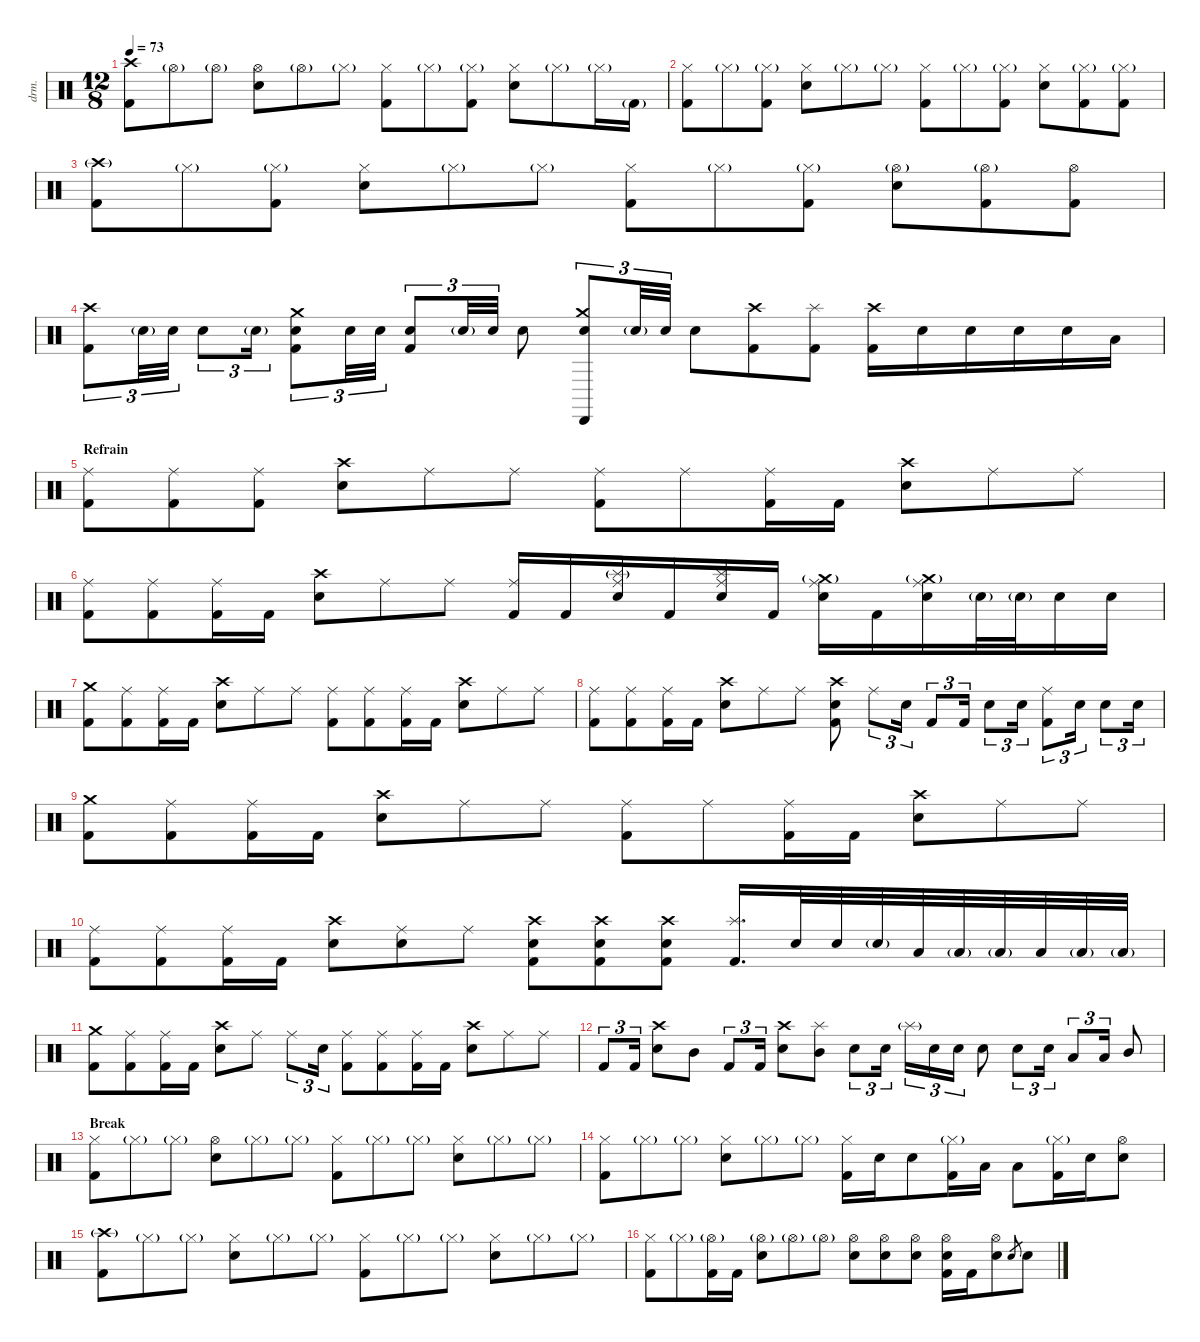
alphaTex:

\defaultSystemsLayout 4
\hideDynamics
\bracketExtendMode nobrackets
\otherSystemsTrackNameOrientation horizontal
\track ("Drums" "drm.") {instrument percussion}
\staff {score}
\articulation defaults
\ts (12 8)
\tempo 73
\clef neutral
\ks c
("Crash high (hit)" "Kick (hit) 2").8{dy f beam Down} "Hi-Hat (open)"{g}.8{dy mf beam Down} "Hi-Hat (open)"{g}.8{beam Down} ("Hi-Hat (open)" "Snare (hit) 2").8{dy f beam Down} "Hi-Hat (open)"{g}.8{beam Down} "Hi-Hat (closed)"{g}.8{beam Down} ("Hi-Hat (closed)" "Kick (hit) 2").8{beam Down} "Hi-Hat (closed)"{g}.8{beam Down} ("Hi-Hat (closed)"{g} "Kick (hit) 2").8{beam Down} ("Hi-Hat (closed)" "Snare (hit) 2").8{beam Down} "Hi-Hat (closed)"{g}.8{beam Down} "Hi-Hat (closed)"{g}.16{beam Down} "Kick (hit) 2"{g}.16{beam Down} |
("Hi-Hat (closed)" "Kick (hit) 2").8{beam Down} "Hi-Hat (closed)"{g}.8{beam Down} ("Hi-Hat (closed)"{g} "Kick (hit) 2").8{beam Down} ("Hi-Hat (closed)" "Snare (hit) 2").8{beam Down} "Hi-Hat (closed)"{g}.8{beam Down} "Hi-Hat (closed)"{g}.8{beam Down} ("Hi-Hat (closed)" "Kick (hit) 2").8{beam Down} "Hi-Hat (closed)"{g}.8{beam Down} ("Hi-Hat (closed)"{g} "Kick (hit) 2").8{beam Down} ("Hi-Hat (closed)" "Snare (hit) 2").8{beam Down} ("Hi-Hat (closed)"{g} "Kick (hit) 2").8{beam Down} ("Hi-Hat (closed)"{g} "Kick (hit) 2").8{beam Down} |
("Crash high (hit)"{g} "Kick (hit) 2").8{beam Down} "Hi-Hat (closed)"{g}.8{beam Down} ("Hi-Hat (closed)"{g} "Kick (hit) 2").8{beam Down} ("Hi-Hat (closed)" "Snare (hit) 2").8{beam Down} "Hi-Hat (closed)"{g}.8{beam Down} "Hi-Hat (closed)"{g}.8{beam Down} ("Hi-Hat (closed)" "Kick (hit) 2").8{beam Down} "Hi-Hat (closed)"{g}.8{beam Down} ("Hi-Hat (closed)"{g} "Kick (hit) 2").8{beam Down} ("Hi-Hat (open)"{g} "Snare (hit) 2").8{beam Down} ("Hi-Hat (open)"{g} "Kick (hit) 2").8{beam Down} ("Hi-Hat (open)" "Kick (hit) 2").8{beam Down} |
("Crash high (hit)" "Kick (hit) 2").8{tu (3 2) beam Down} "Snare (hit) 2"{g}.32{tu (3 2) beam Down} "Snare (hit) 2".32{tu (3 2) beam Down} "Snare (hit) 2".8{tu (3 2) beam Down} "Snare (hit) 2"{g}.16{tu (3 2) beam Down} ("Snare (hit) 2" "Crash medium (hit)" "Kick (hit) 2").8{tu (3 2) beam Down} "Snare (hit) 2".32{tu (3 2) beam Down} "Snare (hit) 2".32{tu (3 2) beam Down} ("Snare (hit) 2" "Kick (hit) 2").8{tu (3 2) beam Up} "Snare (hit) 2"{g}.32{tu (3 2) beam Up} "Snare (hit) 2".32{tu (3 2) beam Up} "Snare (hit) 2".8{beam Down} ("Snare (hit) 2" "Crash medium (hit)" "Cabasa (hit)").8{tu (3 2) beam Up} "Snare (hit) 2"{g}.32{tu (3 2) beam Up} "Snare (hit) 2".32{tu (3 2) beam Up} "Snare (hit) 2".8{beam Down} ("Crash high (hit)" "Kick (hit) 2").8{beam Down} ("Splash (hit)" "Kick (hit) 2").8{beam Down} ("Crash high (hit)" "Kick (hit) 2").16{beam Down} "Snare (hit) 2".16{beam Down} "Snare (hit) 2".16{beam Down} "Snare (hit) 2".16{beam Down} "Snare (hit) 2".16{beam Down} "Low Tom (hit)".16{beam Down} |
\section ("" "Refrain")
("Ride (middle)" "Kick (hit) 2").8{beam Down} ("Ride (middle)" "Kick (hit) 2").8{beam Down} ("Ride (middle)" "Kick (hit) 2").8{beam Down} ("Snare (hit) 2" "Crash high (hit)").8{beam Down} "Ride (middle)".8{beam Down} "Ride (middle)".8{beam Down} ("Ride (middle)" "Kick (hit) 2").8{beam Down} "Ride (middle)".8{beam Down} ("Ride (middle)" "Kick (hit) 2").16{beam Down} "Kick (hit) 2".16{beam Down} ("Snare (hit) 2" "Crash high (hit)").8{beam Down} "Ride (middle)".8{beam Down} "Ride (middle)".8{beam Down} |
("Ride (middle)" "Kick (hit) 2").8{beam Down} ("Ride (middle)" "Kick (hit) 2").8{beam Down} ("Ride (middle)" "Kick (hit) 2").16{beam Down} "Kick (hit) 2".16{beam Down} ("Snare (hit) 2" "Crash high (hit)").8{beam Down} "Ride (middle)".8{beam Down} "Ride (middle)".8{beam Down} ("Ride (middle)" "Kick (hit) 2").16{beam Up} "Kick (hit) 2".16{beam Up} ("Splash (hit)"{g} "Snare (hit) 2" "Ride (middle)").16{beam Up} "Kick (hit) 2".16{beam Up} ("Splash (hit)" "Snare (hit) 2" "Ride (middle)").16{beam Up} "Kick (hit) 2".16{beam Up} ("Crash medium (hit)"{g} "Snare (hit) 2" "Ride (middle)").16{beam Down} "Kick (hit) 2".16{beam Down} ("Crash medium (hit)"{g} "Snare (hit) 2" "Ride (middle)").16{beam Down} "Snare (hit) 2"{g}.32{beam Down} "Snare (hit) 2"{g}.32{beam Down} "Snare (hit) 2".16{beam Down} "Snare (hit) 2".16{beam Down} |
("Crash medium (hit)" "Kick (hit) 2").8{beam Down} ("Ride (middle)" "Kick (hit) 2").8{beam Down} ("Ride (middle)" "Kick (hit) 2").16{beam Down} "Kick (hit) 2".16{beam Down} ("Snare (hit) 2" "Crash high (hit)").8{beam Down} "Ride (middle)".8{beam Down} "Ride (middle)".8{beam Down} ("Ride (middle)" "Kick (hit) 2").8{beam Down} ("Ride (middle)" "Kick (hit) 2").8{beam Down} ("Ride (middle)" "Kick (hit) 2").16{beam Down} "Kick (hit) 2".16{beam Down} ("Snare (hit) 2" "Crash high (hit)").8{beam Down} "Ride (middle)".8{beam Down} "Ride (middle)".8{beam Down} |
("Ride (middle)" "Kick (hit) 2").8{beam Down} ("Ride (middle)" "Kick (hit) 2").8{beam Down} ("Ride (middle)" "Kick (hit) 2").16{beam Down} "Kick (hit) 2".16{beam Down} ("Snare (hit) 2" "Crash high (hit)").8{beam Down} "Ride (middle)".8{beam Down} "Ride (middle)".8{beam Down} ("Snare (hit) 2" "Crash high (hit)" "Kick (hit) 2").8{beam Down} "Ride (middle)".8{tu (3 2) beam Down} "Snare (hit) 2".16{tu (3 2) beam Down} "Kick (hit) 2".8{tu (3 2) beam Up} "Kick (hit) 2".16{tu (3 2) beam Up} "Snare (hit) 2".8{tu (3 2) beam Down} "Snare (hit) 2".16{tu (3 2) beam Down} ("Ride (middle)" "Kick (hit) 2").8{tu (3 2) beam Down} "Snare (hit) 2".16{tu (3 2) beam Down} "Snare (hit) 2".8{tu (3 2) beam Down} "Snare (hit) 2".16{tu (3 2) beam Down} |
("Crash medium (hit)" "Kick (hit) 2").8{beam Down} ("Ride (middle)" "Kick (hit) 2").8{beam Down} ("Ride (middle)" "Kick (hit) 2").16{beam Down} "Kick (hit) 2".16{beam Down} ("Snare (hit) 2" "Crash high (hit)").8{beam Down} "Ride (middle)".8{beam Down} "Ride (middle)".8{beam Down} ("Ride (middle)" "Kick (hit) 2").8{beam Down} "Ride (middle)".8{beam Down} ("Ride (middle)" "Kick (hit) 2").16{beam Down} "Kick (hit) 2".16{beam Down} ("Snare (hit) 2" "Crash high (hit)").8{beam Down} "Ride (middle)".8{beam Down} "Ride (middle)".8{beam Down} |
("Ride (middle)" "Kick (hit) 2").8{beam Down} ("Ride (middle)" "Kick (hit) 2").8{beam Down} ("Ride (middle)" "Kick (hit) 2").16{beam Down} "Kick (hit) 2".16{beam Down} ("Snare (hit) 2" "Crash high (hit)").8{beam Down} ("Snare (hit) 2" "Ride (middle)").8{beam Down} "Ride (middle)".8{beam Down} ("Snare (hit) 2" "Crash high (hit)" "Kick (hit) 2").8{beam Down} ("Snare (hit) 2" "Crash high (hit)" "Kick (hit) 2").8{beam Down} ("Snare (hit) 2" "Crash high (hit)" "Kick (hit) 2").8{beam Down} ("Splash (hit)" "Kick (hit) 2").16{d beam Up} "Snare (hit) 2".32{beam Up} "Snare (hit) 2".32{beam Up} "Snare (hit) 2"{g}.32{beam Up} "Low Tom (hit)".32{beam Up} "Low Tom (hit)"{g}.32{beam Up} "Low Tom (hit)"{g}.32{beam Up} "Low Tom (hit)".32{beam Up} "Low Tom (hit)"{g}.32{beam Up} "Low Tom (hit)"{g}.32{beam Up} |
("Crash medium (hit)" "Kick (hit) 2").8{beam Down} ("Ride (middle)" "Kick (hit) 2").8{beam Down} ("Ride (middle)" "Kick (hit) 2").16{beam Down} "Kick (hit) 2".16{beam Down} ("Snare (hit) 2" "Crash high (hit)").8{beam Down} "Ride (middle)".8{beam Down} "Ride (middle)".8{tu (3 2) beam Down} "Snare (hit) 2".16{tu (3 2) beam Down} ("Ride (middle)" "Kick (hit) 2").8{beam Down} ("Ride (middle)" "Kick (hit) 2").8{beam Down} ("Ride (middle)" "Kick (hit) 2").16{beam Down} "Kick (hit) 2".16{beam Down} ("Snare (hit) 2" "Crash high (hit)").8{beam Down} "Ride (middle)".8{beam Down} "Ride (middle)".8{beam Down} |
"Kick (hit) 2".8{tu (3 2) beam Up} "Kick (hit) 2".16{tu (3 2) beam Up} ("Snare (hit) 2" "Crash high (hit)").8{beam Down} "Mid Tom (hit)".8{beam Down} "Kick (hit) 2".8{tu (3 2) beam Up} "Kick (hit) 2".16{tu (3 2) beam Up} ("Snare (hit) 2" "Crash high (hit)").8{beam Down} ("Mid Tom (hit)" "Splash (hit)").8{beam Down} "Snare (hit) 2".8{tu (3 2) beam Down} "Snare (hit) 2".16{tu (3 2) beam Down} "Splash (hit)"{g}.16{tu (3 2) beam Down} "Snare (hit) 2".16{tu (3 2) beam Down} "Snare (hit) 2".16{tu (3 2) beam Down} "Snare (hit) 2".8{beam Down} "Snare (hit) 2".8{tu (3 2) beam Down} "Snare (hit) 2".16{tu (3 2) beam Down} "Low Tom (hit)".8{tu (3 2) beam Up} "Low Tom (hit)".16{tu (3 2) beam Up} "Mid Tom (hit)".8{beam Up} |
\section ("" "Break")
("Hi-Hat (closed)" "Kick (hit) 2").8{beam Down} "Hi-Hat (closed)"{g}.8{beam Down} "Hi-Hat (closed)"{g}.8{beam Down} ("Hi-Hat (open)" "Snare (hit) 2").8{beam Down} "Hi-Hat (closed)"{g}.8{beam Down} "Hi-Hat (closed)"{g}.8{beam Down} ("Hi-Hat (closed)" "Kick (hit) 2").8{beam Down} "Hi-Hat (closed)"{g}.8{beam Down} "Hi-Hat (closed)"{g}.8{beam Down} ("Hi-Hat (closed)" "Snare (hit) 2").8{beam Down} "Hi-Hat (closed)"{g}.8{beam Down} "Hi-Hat (closed)"{g}.8{beam Down} |
("Hi-Hat (closed)" "Kick (hit) 2").8{beam Down} "Hi-Hat (closed)"{g}.8{beam Down} "Hi-Hat (closed)"{g}.8{beam Down} ("Hi-Hat (closed)" "Snare (hit) 2").8{beam Down} "Hi-Hat (closed)"{g}.8{beam Down} "Hi-Hat (closed)"{g}.8{beam Down} ("Hi-Hat (closed)" "Kick (hit) 2").16{beam Down} "Snare (hit) 2".16{beam Down} "Snare (hit) 2".8{beam Down} ("Hi-Hat (closed)"{g} "Kick (hit) 2").16{beam Down} "Low Tom (hit)".16{beam Down} "Low Tom (hit)".8{beam Down} ("Hi-Hat (closed)"{g} "Kick (hit) 2").16{beam Down} "Snare (hit) 2".16{beam Down} ("Hi-Hat (open)" "Snare (hit) 2").8{beam Down} |
("Crash high (hit)"{g} "Kick (hit) 2").8{beam Down} "Hi-Hat (closed)"{g}.8{beam Down} "Hi-Hat (closed)"{g}.8{beam Down} ("Hi-Hat (closed)" "Snare (hit) 2").8{beam Down} "Hi-Hat (closed)"{g}.8{beam Down} "Hi-Hat (closed)"{g}.8{beam Down} ("Hi-Hat (closed)" "Kick (hit) 2").8{beam Down} "Hi-Hat (closed)"{g}.8{beam Down} "Hi-Hat (closed)"{g}.8{beam Down} ("Hi-Hat (closed)" "Snare (hit) 2").8{beam Down} "Hi-Hat (closed)"{g}.8{beam Down} "Hi-Hat (closed)"{g}.8{beam Down} |
("Hi-Hat (closed)" "Kick (hit) 2").8{beam Down} "Hi-Hat (closed)"{g}.8{beam Down} ("Hi-Hat (open)"{g} "Kick (hit) 2").16{beam Down} "Kick (hit) 2".16{beam Down} ("Hi-Hat (open)"{g} "Snare (hit) 2").8{beam Down} "Hi-Hat (open)"{g}.8{beam Down} "Hi-Hat (open)"{g}.8{beam Down} ("Hi-Hat (open)" "Snare (hit) 2").8{beam Down} ("Hi-Hat (open)" "Snare (hit) 2").8{beam Down} ("Hi-Hat (open)" "Snare (hit) 2").8{beam Down} ("Hi-Hat (open)" "Snare (hit) 2" "Kick (hit) 2").16{beam Down} "Kick (hit) 2".16{beam Down} ("Hi-Hat (open)" "Snare (hit) 2").8{beam Down} "Snare (hit) 2".8{gr dy mf beam Up} "Snare (hit) 2".8{dy f beam Down}
